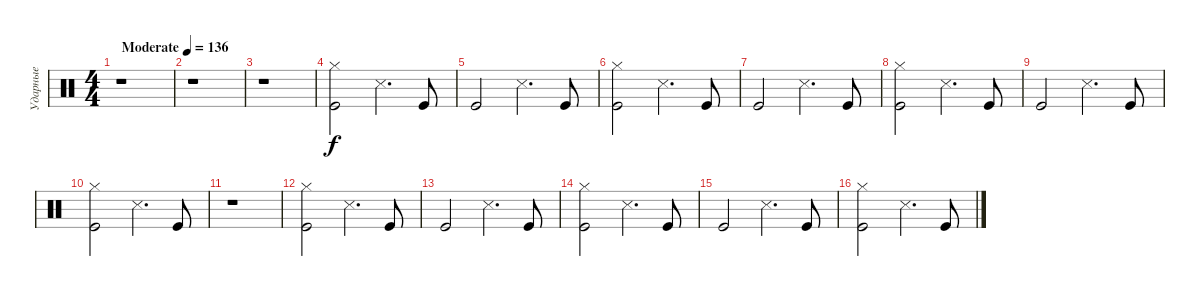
\track ("Ударные" "Ударные") {instrument percussion}
\staff {score}
\articulation defaults
\ts (4 4)
\tempo (136 "Moderate")
\clef neutral
\ks c
r.1{dy f} |
r.1 |
r.1 |
("Kick (hit)" "Hi-Hat (closed)").2 "Snare (side stick) 3".4{d} "Kick (hit)".8 |
"Kick (hit)".2 "Snare (side stick) 3".4{d} "Kick (hit)".8 |
("Kick (hit)" "Hi-Hat (closed)").2 "Snare (side stick) 3".4{d} "Kick (hit)".8 |
"Kick (hit)".2 "Snare (side stick) 3".4{d} "Kick (hit)".8 |
("Kick (hit)" "Hi-Hat (closed)").2 "Snare (side stick) 3".4{d} "Kick (hit)".8 |
"Kick (hit)".2 "Snare (side stick) 3".4{d} "Kick (hit)".8 |
("Kick (hit)" "Hi-Hat (closed)").2 "Snare (side stick) 3".4{d} "Kick (hit)".8 |
r.1 |
("Kick (hit)" "Hi-Hat (closed)").2 "Snare (side stick) 3".4{d} "Kick (hit)".8 |
"Kick (hit)".2 "Snare (side stick) 3".4{d} "Kick (hit)".8 |
("Kick (hit)" "Hi-Hat (closed)").2 "Snare (side stick) 3".4{d} "Kick (hit)".8 |
"Kick (hit)".2 "Snare (side stick) 3".4{d} "Kick (hit)".8 |
("Kick (hit)" "Hi-Hat (closed)").2 "Snare (side stick) 3".4{d} "Kick (hit)".8
